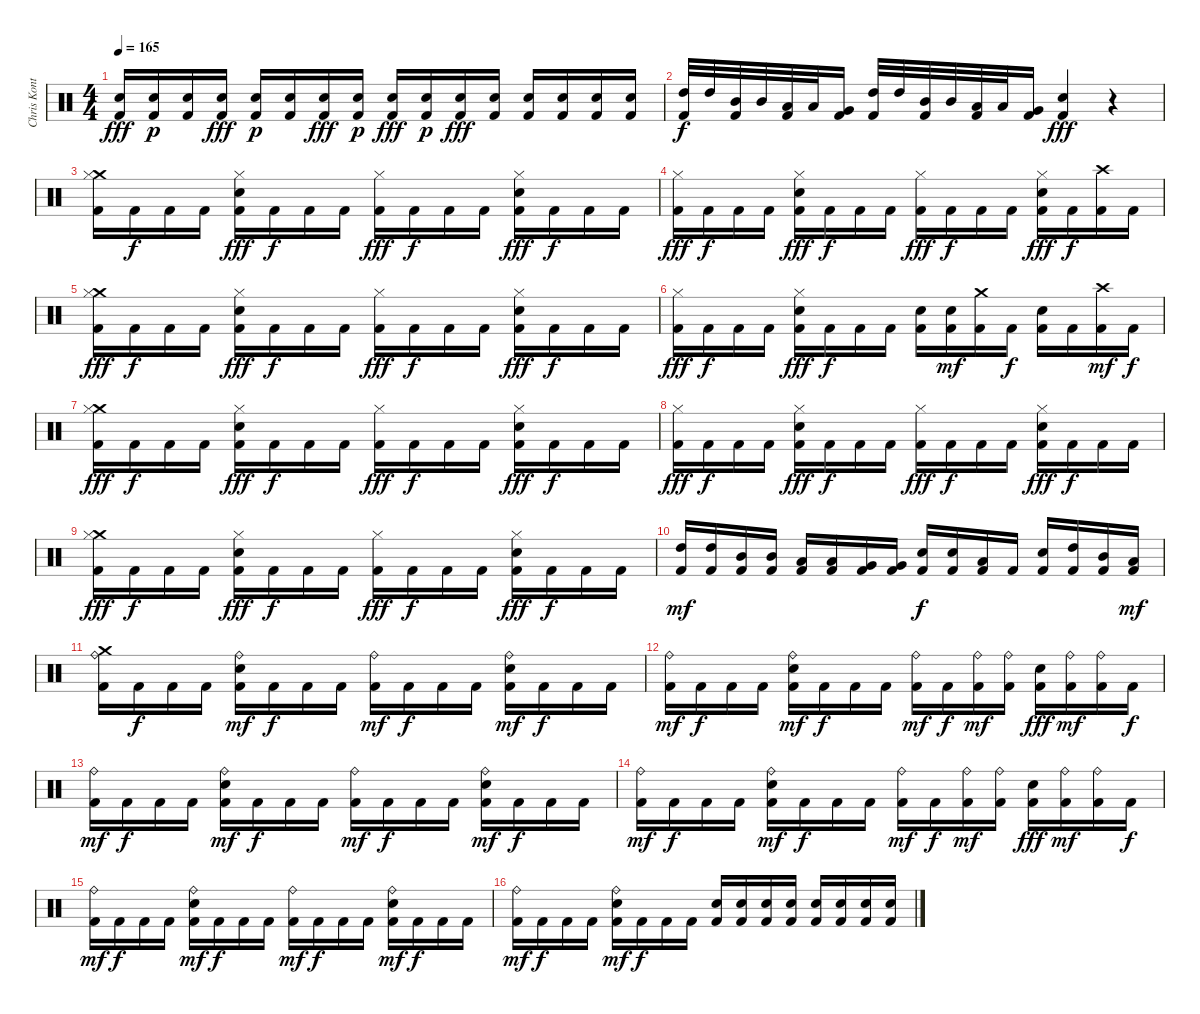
\track ("Chris Kontos" "Chris Kont") {instrument percussion}
\staff {score}
\articulation defaults
\ts (4 4)
\tempo 165
\clef neutral
\ks c
("Electric Snare (hit)" "Kick (hit) 2").16{dy fff} ("Electric Snare (hit)" "Kick (hit) 2").16{dy p} ("Electric Snare (hit)" "Kick (hit) 2").16 ("Electric Snare (hit)" "Kick (hit) 2").16{dy fff} ("Electric Snare (hit)" "Kick (hit) 2").16{dy p} ("Electric Snare (hit)" "Kick (hit) 2").16 ("Electric Snare (hit)" "Kick (hit) 2").16{dy fff} ("Electric Snare (hit)" "Kick (hit) 2").16{dy p} ("Electric Snare (hit)" "Kick (hit) 2").16{dy fff} ("Electric Snare (hit)" "Kick (hit) 2").16{dy p} ("Electric Snare (hit)" "Kick (hit) 2").16{dy fff} ("Electric Snare (hit)" "Kick (hit) 2").16 ("Electric Snare (hit)" "Kick (hit) 2").16 ("Electric Snare (hit)" "Kick (hit) 2").16 ("Electric Snare (hit)" "Kick (hit) 2").16 ("Electric Snare (hit)" "Kick (hit) 2").16 |
("High Tom (hit)" "Kick (hit) 2").32{dy f} "High Tom (hit)".32 ("Mid Tom (hit)" "Kick (hit) 2").32 "Mid Tom (hit)".32 ("Low Tom (hit)" "Kick (hit) 2").32 "Low Tom (hit)".32 ("Very Low Tom (hit)" "Kick (hit) 2").16 ("High Tom (hit)" "Kick (hit) 2").32 "High Tom (hit)".32 ("Mid Tom (hit)" "Kick (hit) 2").32 "Mid Tom (hit)".32 ("Low Tom (hit)" "Kick (hit) 2").32 "Low Tom (hit)".32 ("Very Low Tom (hit)" "Kick (hit) 2").16 ("Electric Snare (hit)" "Kick (hit) 2").4{dy fff} r.4 |
("Crash medium (hit)" "Hi-Hat (closed)" "Kick (hit) 2").16 "Kick (hit) 2".16{dy f} "Kick (hit) 2".16 "Kick (hit) 2".16 ("Electric Snare (hit)" "Hi-Hat (closed)" "Kick (hit) 2").16{dy fff} "Kick (hit) 2".16{dy f} "Kick (hit) 2".16 "Kick (hit) 2".16 ("Hi-Hat (closed)" "Kick (hit) 2").16{dy fff} "Kick (hit) 2".16{dy f} "Kick (hit) 2".16 "Kick (hit) 2".16 ("Electric Snare (hit)" "Hi-Hat (closed)" "Kick (hit) 2").16{dy fff} "Kick (hit) 2".16{dy f} "Kick (hit) 2".16 "Kick (hit) 2".16 |
("Hi-Hat (closed)" "Kick (hit) 2").16{dy fff} "Kick (hit) 2".16{dy f} "Kick (hit) 2".16 "Kick (hit) 2".16 ("Electric Snare (hit)" "Hi-Hat (closed)" "Kick (hit) 2").16{dy fff} "Kick (hit) 2".16{dy f} "Kick (hit) 2".16 "Kick (hit) 2".16 ("Hi-Hat (closed)" "Kick (hit) 2").16{dy fff} "Kick (hit) 2".16{dy f} "Kick (hit) 2".16 "Kick (hit) 2".16 ("Electric Snare (hit)" "Hi-Hat (closed)" "Kick (hit) 2").16{dy fff} "Kick (hit) 2".16{dy f} ("Crash high (hit)" "Kick (hit) 2").16 "Kick (hit) 2".16 |
("Crash medium (hit)" "Hi-Hat (closed)" "Kick (hit) 2").16{dy fff} "Kick (hit) 2".16{dy f} "Kick (hit) 2".16 "Kick (hit) 2".16 ("Electric Snare (hit)" "Hi-Hat (closed)" "Kick (hit) 2").16{dy fff} "Kick (hit) 2".16{dy f} "Kick (hit) 2".16 "Kick (hit) 2".16 ("Hi-Hat (closed)" "Kick (hit) 2").16{dy fff} "Kick (hit) 2".16{dy f} "Kick (hit) 2".16 "Kick (hit) 2".16 ("Electric Snare (hit)" "Hi-Hat (closed)" "Kick (hit) 2").16{dy fff} "Kick (hit) 2".16{dy f} "Kick (hit) 2".16 "Kick (hit) 2".16 |
("Hi-Hat (closed)" "Kick (hit) 2").16{dy fff} "Kick (hit) 2".16{dy f} "Kick (hit) 2".16 "Kick (hit) 2".16 ("Electric Snare (hit)" "Hi-Hat (closed)" "Kick (hit) 2").16{dy fff} "Kick (hit) 2".16{dy f} "Kick (hit) 2".16 "Kick (hit) 2".16 ("Electric Snare (hit)" "Kick (hit) 2").16 ("Electric Snare (hit)" "Kick (hit) 2").16{dy mf} ("Crash medium (hit)" "Kick (hit) 2").16 "Kick (hit) 2".16{dy f} ("Electric Snare (hit)" "Kick (hit) 2").16 "Kick (hit) 2".16 ("Crash high (hit)" "Kick (hit) 2").16{dy mf} "Kick (hit) 2".16{dy f} |
("Crash medium (hit)" "Hi-Hat (closed)" "Kick (hit) 2").16{dy fff} "Kick (hit) 2".16{dy f} "Kick (hit) 2".16 "Kick (hit) 2".16 ("Electric Snare (hit)" "Hi-Hat (closed)" "Kick (hit) 2").16{dy fff} "Kick (hit) 2".16{dy f} "Kick (hit) 2".16 "Kick (hit) 2".16 ("Hi-Hat (closed)" "Kick (hit) 2").16{dy fff} "Kick (hit) 2".16{dy f} "Kick (hit) 2".16 "Kick (hit) 2".16 ("Electric Snare (hit)" "Hi-Hat (closed)" "Kick (hit) 2").16{dy fff} "Kick (hit) 2".16{dy f} "Kick (hit) 2".16 "Kick (hit) 2".16 |
("Hi-Hat (closed)" "Kick (hit) 2").16{dy fff} "Kick (hit) 2".16{dy f} "Kick (hit) 2".16 "Kick (hit) 2".16 ("Electric Snare (hit)" "Hi-Hat (closed)" "Kick (hit) 2").16{dy fff} "Kick (hit) 2".16{dy f} "Kick (hit) 2".16 "Kick (hit) 2".16 ("Hi-Hat (closed)" "Kick (hit) 2").16{dy fff} "Kick (hit) 2".16{dy f} "Kick (hit) 2".16 "Kick (hit) 2".16 ("Electric Snare (hit)" "Hi-Hat (closed)" "Kick (hit) 2").16{dy fff} "Kick (hit) 2".16{dy f} "Kick (hit) 2".16 "Kick (hit) 2".16 |
("Crash medium (hit)" "Hi-Hat (closed)" "Kick (hit) 2").16{dy fff} "Kick (hit) 2".16{dy f} "Kick (hit) 2".16 "Kick (hit) 2".16 ("Electric Snare (hit)" "Hi-Hat (closed)" "Kick (hit) 2").16{dy fff} "Kick (hit) 2".16{dy f} "Kick (hit) 2".16 "Kick (hit) 2".16 ("Hi-Hat (closed)" "Kick (hit) 2").16{dy fff} "Kick (hit) 2".16{dy f} "Kick (hit) 2".16 "Kick (hit) 2".16 ("Electric Snare (hit)" "Hi-Hat (closed)" "Kick (hit) 2").16{dy fff} "Kick (hit) 2".16{dy f} "Kick (hit) 2".16 "Kick (hit) 2".16 |
("High Tom (hit)" "Kick (hit) 2").16{dy mf} ("High Tom (hit)" "Kick (hit) 2").16 ("Mid Tom (hit)" "Kick (hit) 2").16 ("Mid Tom (hit)" "Kick (hit) 2").16 ("Low Tom (hit)" "Kick (hit) 2").16 ("Low Tom (hit)" "Kick (hit) 2").16 ("Very Low Tom (hit)" "Kick (hit) 2").16 ("Very Low Tom (hit)" "Kick (hit) 2").16 ("Electric Snare (hit)" "Kick (hit) 2").16{dy f} ("Electric Snare (hit)" "Kick (hit) 2").16 ("Low Tom (hit)" "Kick (hit) 2").16 "Kick (hit) 2".16 ("Electric Snare (hit)" "Kick (hit) 2").16 ("High Tom (hit)" "Kick (hit) 2").16 ("Mid Tom (hit)" "Kick (hit) 2").16 ("Low Tom (hit)" "Kick (hit) 2").16{dy mf} |
("Crash medium (hit)" "Ride (bell)" "Kick (hit) 2").16 "Kick (hit) 2".16{dy f} "Kick (hit) 2".16 "Kick (hit) 2".16 ("Electric Snare (hit)" "Ride (bell)" "Kick (hit) 2").16{dy mf} "Kick (hit) 2".16{dy f} "Kick (hit) 2".16 "Kick (hit) 2".16 ("Ride (bell)" "Kick (hit) 2").16{dy mf} "Kick (hit) 2".16{dy f} "Kick (hit) 2".16 "Kick (hit) 2".16 ("Electric Snare (hit)" "Ride (bell)" "Kick (hit) 2").16{dy mf} "Kick (hit) 2".16{dy f} "Kick (hit) 2".16 "Kick (hit) 2".16 |
("Ride (bell)" "Kick (hit) 2").16{dy mf} "Kick (hit) 2".16{dy f} "Kick (hit) 2".16 "Kick (hit) 2".16 ("Electric Snare (hit)" "Ride (bell)" "Kick (hit) 2").16{dy mf} "Kick (hit) 2".16{dy f} "Kick (hit) 2".16 "Kick (hit) 2".16 ("Ride (bell)" "Kick (hit) 2").16{dy mf} "Kick (hit) 2".16{dy f} ("Ride (bell)" "Kick (hit) 2").16{dy mf} ("Ride (bell)" "Kick (hit) 2").16 ("Electric Snare (hit)" "Kick (hit) 2").16{dy fff} ("Ride (bell)" "Kick (hit) 2").16{dy mf} ("Ride (bell)" "Kick (hit) 2").16 "Kick (hit) 2".16{dy f} |
("Ride (bell)" "Kick (hit) 2").16{dy mf} "Kick (hit) 2".16{dy f} "Kick (hit) 2".16 "Kick (hit) 2".16 ("Electric Snare (hit)" "Ride (bell)" "Kick (hit) 2").16{dy mf} "Kick (hit) 2".16{dy f} "Kick (hit) 2".16 "Kick (hit) 2".16 ("Ride (bell)" "Kick (hit) 2").16{dy mf} "Kick (hit) 2".16{dy f} "Kick (hit) 2".16 "Kick (hit) 2".16 ("Electric Snare (hit)" "Ride (bell)" "Kick (hit) 2").16{dy mf} "Kick (hit) 2".16{dy f} "Kick (hit) 2".16 "Kick (hit) 2".16 |
("Ride (bell)" "Kick (hit) 2").16{dy mf} "Kick (hit) 2".16{dy f} "Kick (hit) 2".16 "Kick (hit) 2".16 ("Electric Snare (hit)" "Ride (bell)" "Kick (hit) 2").16{dy mf} "Kick (hit) 2".16{dy f} "Kick (hit) 2".16 "Kick (hit) 2".16 ("Ride (bell)" "Kick (hit) 2").16{dy mf} "Kick (hit) 2".16{dy f} ("Ride (bell)" "Kick (hit) 2").16{dy mf} ("Ride (bell)" "Kick (hit) 2").16 ("Electric Snare (hit)" "Kick (hit) 2").16{dy fff} ("Ride (bell)" "Kick (hit) 2").16{dy mf} ("Ride (bell)" "Kick (hit) 2").16 "Kick (hit) 2".16{dy f} |
("Ride (bell)" "Kick (hit) 2").16{dy mf} "Kick (hit) 2".16{dy f} "Kick (hit) 2".16 "Kick (hit) 2".16 ("Electric Snare (hit)" "Ride (bell)" "Kick (hit) 2").16{dy mf} "Kick (hit) 2".16{dy f} "Kick (hit) 2".16 "Kick (hit) 2".16 ("Ride (bell)" "Kick (hit) 2").16{dy mf} "Kick (hit) 2".16{dy f} "Kick (hit) 2".16 "Kick (hit) 2".16 ("Electric Snare (hit)" "Ride (bell)" "Kick (hit) 2").16{dy mf} "Kick (hit) 2".16{dy f} "Kick (hit) 2".16 "Kick (hit) 2".16 |
("Ride (bell)" "Kick (hit) 2").16{dy mf} "Kick (hit) 2".16{dy f} "Kick (hit) 2".16 "Kick (hit) 2".16 ("Electric Snare (hit)" "Ride (bell)" "Kick (hit) 2").16{dy mf} "Kick (hit) 2".16{dy f} "Kick (hit) 2".16 "Kick (hit) 2".16 ("Electric Snare (hit)" "Kick (hit) 2").16 ("Electric Snare (hit)" "Kick (hit) 2").16 ("Electric Snare (hit)" "Kick (hit) 2").16 ("Electric Snare (hit)" "Kick (hit) 2").16 ("Electric Snare (hit)" "Kick (hit) 2").16 ("Electric Snare (hit)" "Kick (hit) 2").16 ("Electric Snare (hit)" "Kick (hit) 2").16 ("Electric Snare (hit)" "Kick (hit) 2").16
